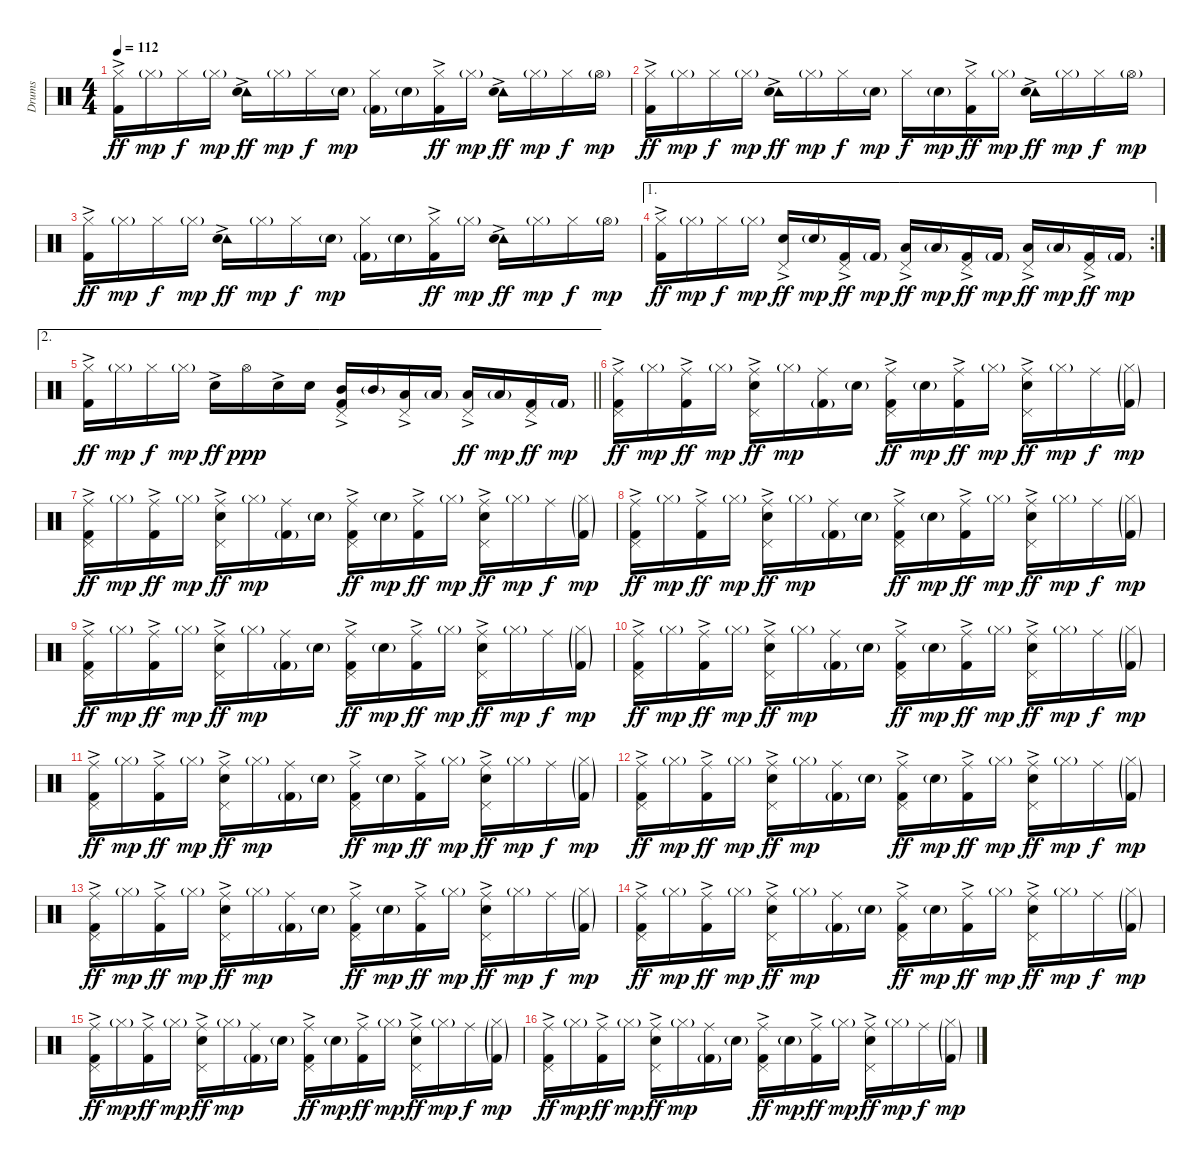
\track ("Drums" "Drums") {instrument percussion}
\staff {score}
\articulation defaults
\ts (4 4)
\tempo 112
\clef neutral
\ks c
("Hi-Hat (closed)" "Kick (hit) 2"{ac}).16{dy ff} "Hi-Hat (closed)"{g}.16{dy mp} "Hi-Hat (closed)".16{dy f} "Hi-Hat (closed)"{g}.16{dy mp} ("Tambourine (hit)" "Snare (hit) 2"{ac}).16{dy ff} "Hi-Hat (closed)"{g}.16{dy mp} "Hi-Hat (closed)".16{dy f} "Snare (hit) 2"{g}.16{dy mp} ("Hi-Hat (closed)" "Kick (hit) 2"{g}).16 "Snare (hit) 2"{g}.16 ("Hi-Hat (closed)" "Kick (hit) 2"{ac}).16{dy ff} "Hi-Hat (closed)"{g}.16{dy mp} ("Tambourine (hit)" "Snare (hit) 2"{ac}).16{dy ff} "Hi-Hat (closed)"{g}.16{dy mp} "Hi-Hat (closed)".16{dy f} "Hi-Hat (open)"{g}.16{dy mp} |
("Hi-Hat (closed)" "Kick (hit) 2"{ac}).16{dy ff} "Hi-Hat (closed)"{g}.16{dy mp} "Hi-Hat (closed)".16{dy f} "Hi-Hat (closed)"{g}.16{dy mp} ("Tambourine (hit)" "Snare (hit) 2"{ac}).16{dy ff} "Hi-Hat (closed)"{g}.16{dy mp} "Hi-Hat (closed)".16{dy f} "Snare (hit) 2"{g}.16{dy mp} "Hi-Hat (closed)".16{dy f} "Snare (hit) 2"{g}.16{dy mp} ("Hi-Hat (closed)" "Kick (hit) 2"{ac}).16{dy ff} "Hi-Hat (closed)"{g}.16{dy mp} ("Tambourine (hit)" "Snare (hit) 2"{ac}).16{dy ff} "Hi-Hat (closed)"{g}.16{dy mp} "Hi-Hat (closed)".16{dy f} "Hi-Hat (open)"{g}.16{dy mp} |
("Hi-Hat (closed)" "Kick (hit) 2"{ac}).16{dy ff} "Hi-Hat (closed)"{g}.16{dy mp} "Hi-Hat (closed)".16{dy f} "Hi-Hat (closed)"{g}.16{dy mp} ("Tambourine (hit)" "Snare (hit) 2"{ac}).16{dy ff} "Hi-Hat (closed)"{g}.16{dy mp} "Hi-Hat (closed)".16{dy f} "Snare (hit) 2"{g}.16{dy mp} ("Hi-Hat (closed)" "Kick (hit) 2"{g}).16 "Snare (hit) 2"{g}.16 ("Hi-Hat (closed)" "Kick (hit) 2"{ac}).16{dy ff} "Hi-Hat (closed)"{g}.16{dy mp} ("Tambourine (hit)" "Snare (hit) 2"{ac}).16{dy ff} "Hi-Hat (closed)"{g}.16{dy mp} "Hi-Hat (closed)".16{dy f} "Hi-Hat (open)"{g}.16{dy mp} |
\ae 1
\rc 2
("Hi-Hat (closed)" "Kick (hit) 2"{ac}).16{dy ff} "Hi-Hat (closed)"{g}.16{dy mp} "Hi-Hat (closed)".16{dy f} "Hi-Hat (closed)"{g}.16{dy mp} ("Pedal Hi-Hat (hit)" "Snare (hit) 2"{ac}).16{dy ff} "Snare (hit) 2"{g}.16{dy mp} ("Pedal Hi-Hat (hit)" "Kick (hit) 2"{ac}).16{dy ff} "Kick (hit) 2"{g}.16{dy mp} ("Pedal Hi-Hat (hit)" "Low Tom (hit)"{ac}).16{dy ff} "Low Tom (hit)"{g}.16{dy mp} ("Pedal Hi-Hat (hit)" "Kick (hit) 2"{ac}).16{dy ff} "Kick (hit) 2"{g}.16{dy mp} ("Pedal Hi-Hat (hit)" "Low Floor Tom (hit)"{ac}).16{dy ff} "Low Floor Tom (hit)"{g}.16{dy mp} ("Pedal Hi-Hat (hit)" "Kick (hit) 2"{ac}).16{dy ff} "Kick (hit) 2"{g}.16{dy mp} |
\ae 2
\barLineRight lightlight
("Hi-Hat (closed)" "Kick (hit) 2"{ac}).16{dy ff} "Hi-Hat (closed)"{g}.16{dy mp} "Hi-Hat (closed)".16{dy f} "Hi-Hat (closed)"{g}.16{dy mp} "Snare (hit) 2"{ac}.16{dy ff} "Hi-Hat (open)".16{dy ppp} "Snare (hit) 2"{ac}.16 "Snare (hit) 2".16 ("Pedal Hi-Hat (hit)" "Mid Tom (hit)"{ac} "Kick (hit) 2"{ac}).16 "Mid Tom (hit)"{g}.16 ("Pedal Hi-Hat (hit)" "Low Tom (hit)"{ac}).16 "Low Tom (hit)"{g}.16 ("Pedal Hi-Hat (hit)" "Low Floor Tom (hit)"{ac}).16{dy ff} "Low Floor Tom (hit)"{g}.16{dy mp} ("Pedal Hi-Hat (hit)" "Kick (hit) 2"{ac}).16{dy ff} "Kick (hit) 2"{g}.16{dy mp} |
("Pedal Hi-Hat (hit)" "Ride (middle)" "Kick (hit) 2"{ac}).16{dy ff} "Hi-Hat (closed)"{g}.16{dy mp} ("Ride (middle)" "Kick (hit) 2"{ac}).16{dy ff} "Hi-Hat (closed)"{g}.16{dy mp} ("Pedal Hi-Hat (hit)" "Ride (middle)" "Snare (hit) 2"{ac}).16{dy ff} "Hi-Hat (closed)"{g}.16{dy mp} ("Ride (middle)" "Kick (hit) 2"{g}).16 "Snare (hit) 2"{g}.16 ("Pedal Hi-Hat (hit)" "Ride (middle)" "Kick (hit) 2"{ac}).16{dy ff} "Snare (hit) 2"{g}.16{dy mp} ("Ride (middle)" "Kick (hit) 2"{ac}).16{dy ff} "Hi-Hat (closed)"{g}.16{dy mp} ("Pedal Hi-Hat (hit)" "Ride (middle)" "Snare (hit) 2"{ac}).16{dy ff} "Hi-Hat (closed)"{g}.16{dy mp} "Ride (middle)".16{dy f} ("Hi-Hat (closed)"{g} "Kick (hit) 2"{g}).16{dy mp} |
("Pedal Hi-Hat (hit)" "Ride (middle)" "Kick (hit) 2"{ac}).16{dy ff} "Hi-Hat (closed)"{g}.16{dy mp} ("Ride (middle)" "Kick (hit) 2"{ac}).16{dy ff} "Hi-Hat (closed)"{g}.16{dy mp} ("Pedal Hi-Hat (hit)" "Ride (middle)" "Snare (hit) 2"{ac}).16{dy ff} "Hi-Hat (closed)"{g}.16{dy mp} ("Ride (middle)" "Kick (hit) 2"{g}).16 "Snare (hit) 2"{g}.16 ("Pedal Hi-Hat (hit)" "Ride (middle)" "Kick (hit) 2"{ac}).16{dy ff} "Snare (hit) 2"{g}.16{dy mp} ("Ride (middle)" "Kick (hit) 2"{ac}).16{dy ff} "Hi-Hat (closed)"{g}.16{dy mp} ("Pedal Hi-Hat (hit)" "Ride (middle)" "Snare (hit) 2"{ac}).16{dy ff} "Hi-Hat (closed)"{g}.16{dy mp} "Ride (middle)".16{dy f} ("Hi-Hat (closed)"{g} "Kick (hit) 2"{g}).16{dy mp} |
("Pedal Hi-Hat (hit)" "Ride (middle)" "Kick (hit) 2"{ac}).16{dy ff} "Hi-Hat (closed)"{g}.16{dy mp} ("Ride (middle)" "Kick (hit) 2"{ac}).16{dy ff} "Hi-Hat (closed)"{g}.16{dy mp} ("Pedal Hi-Hat (hit)" "Ride (middle)" "Snare (hit) 2"{ac}).16{dy ff} "Hi-Hat (closed)"{g}.16{dy mp} ("Ride (middle)" "Kick (hit) 2"{g}).16 "Snare (hit) 2"{g}.16 ("Pedal Hi-Hat (hit)" "Ride (middle)" "Kick (hit) 2"{ac}).16{dy ff} "Snare (hit) 2"{g}.16{dy mp} ("Ride (middle)" "Kick (hit) 2"{ac}).16{dy ff} "Hi-Hat (closed)"{g}.16{dy mp} ("Pedal Hi-Hat (hit)" "Ride (middle)" "Snare (hit) 2"{ac}).16{dy ff} "Hi-Hat (closed)"{g}.16{dy mp} "Ride (middle)".16{dy f} ("Hi-Hat (closed)"{g} "Kick (hit) 2"{g}).16{dy mp} |
("Pedal Hi-Hat (hit)" "Ride (middle)" "Kick (hit) 2"{ac}).16{dy ff} "Hi-Hat (closed)"{g}.16{dy mp} ("Ride (middle)" "Kick (hit) 2"{ac}).16{dy ff} "Hi-Hat (closed)"{g}.16{dy mp} ("Pedal Hi-Hat (hit)" "Ride (middle)" "Snare (hit) 2"{ac}).16{dy ff} "Hi-Hat (closed)"{g}.16{dy mp} ("Ride (middle)" "Kick (hit) 2"{g}).16 "Snare (hit) 2"{g}.16 ("Pedal Hi-Hat (hit)" "Ride (middle)" "Kick (hit) 2"{ac}).16{dy ff} "Snare (hit) 2"{g}.16{dy mp} ("Ride (middle)" "Kick (hit) 2"{ac}).16{dy ff} "Hi-Hat (closed)"{g}.16{dy mp} ("Pedal Hi-Hat (hit)" "Ride (middle)" "Snare (hit) 2"{ac}).16{dy ff} "Hi-Hat (closed)"{g}.16{dy mp} "Ride (middle)".16{dy f} ("Hi-Hat (closed)"{g} "Kick (hit) 2"{g}).16{dy mp} |
("Pedal Hi-Hat (hit)" "Ride (middle)" "Kick (hit) 2"{ac}).16{dy ff} "Hi-Hat (closed)"{g}.16{dy mp} ("Ride (middle)" "Kick (hit) 2"{ac}).16{dy ff} "Hi-Hat (closed)"{g}.16{dy mp} ("Pedal Hi-Hat (hit)" "Ride (middle)" "Snare (hit) 2"{ac}).16{dy ff} "Hi-Hat (closed)"{g}.16{dy mp} ("Ride (middle)" "Kick (hit) 2"{g}).16 "Snare (hit) 2"{g}.16 ("Pedal Hi-Hat (hit)" "Ride (middle)" "Kick (hit) 2"{ac}).16{dy ff} "Snare (hit) 2"{g}.16{dy mp} ("Ride (middle)" "Kick (hit) 2"{ac}).16{dy ff} "Hi-Hat (closed)"{g}.16{dy mp} ("Pedal Hi-Hat (hit)" "Ride (middle)" "Snare (hit) 2"{ac}).16{dy ff} "Hi-Hat (closed)"{g}.16{dy mp} "Ride (middle)".16{dy f} ("Hi-Hat (closed)"{g} "Kick (hit) 2"{g}).16{dy mp} |
("Pedal Hi-Hat (hit)" "Ride (middle)" "Kick (hit) 2"{ac}).16{dy ff} "Hi-Hat (closed)"{g}.16{dy mp} ("Ride (middle)" "Kick (hit) 2"{ac}).16{dy ff} "Hi-Hat (closed)"{g}.16{dy mp} ("Pedal Hi-Hat (hit)" "Ride (middle)" "Snare (hit) 2"{ac}).16{dy ff} "Hi-Hat (closed)"{g}.16{dy mp} ("Ride (middle)" "Kick (hit) 2"{g}).16 "Snare (hit) 2"{g}.16 ("Pedal Hi-Hat (hit)" "Ride (middle)" "Kick (hit) 2"{ac}).16{dy ff} "Snare (hit) 2"{g}.16{dy mp} ("Ride (middle)" "Kick (hit) 2"{ac}).16{dy ff} "Hi-Hat (closed)"{g}.16{dy mp} ("Pedal Hi-Hat (hit)" "Ride (middle)" "Snare (hit) 2"{ac}).16{dy ff} "Hi-Hat (closed)"{g}.16{dy mp} "Ride (middle)".16{dy f} ("Hi-Hat (closed)"{g} "Kick (hit) 2"{g}).16{dy mp} |
("Pedal Hi-Hat (hit)" "Ride (middle)" "Kick (hit) 2"{ac}).16{dy ff} "Hi-Hat (closed)"{g}.16{dy mp} ("Ride (middle)" "Kick (hit) 2"{ac}).16{dy ff} "Hi-Hat (closed)"{g}.16{dy mp} ("Pedal Hi-Hat (hit)" "Ride (middle)" "Snare (hit) 2"{ac}).16{dy ff} "Hi-Hat (closed)"{g}.16{dy mp} ("Ride (middle)" "Kick (hit) 2"{g}).16 "Snare (hit) 2"{g}.16 ("Pedal Hi-Hat (hit)" "Ride (middle)" "Kick (hit) 2"{ac}).16{dy ff} "Snare (hit) 2"{g}.16{dy mp} ("Ride (middle)" "Kick (hit) 2"{ac}).16{dy ff} "Hi-Hat (closed)"{g}.16{dy mp} ("Pedal Hi-Hat (hit)" "Ride (middle)" "Snare (hit) 2"{ac}).16{dy ff} "Hi-Hat (closed)"{g}.16{dy mp} "Ride (middle)".16{dy f} ("Hi-Hat (closed)"{g} "Kick (hit) 2"{g}).16{dy mp} |
("Pedal Hi-Hat (hit)" "Ride (middle)" "Kick (hit) 2"{ac}).16{dy ff} "Hi-Hat (closed)"{g}.16{dy mp} ("Ride (middle)" "Kick (hit) 2"{ac}).16{dy ff} "Hi-Hat (closed)"{g}.16{dy mp} ("Pedal Hi-Hat (hit)" "Ride (middle)" "Snare (hit) 2"{ac}).16{dy ff} "Hi-Hat (closed)"{g}.16{dy mp} ("Ride (middle)" "Kick (hit) 2"{g}).16 "Snare (hit) 2"{g}.16 ("Pedal Hi-Hat (hit)" "Ride (middle)" "Kick (hit) 2"{ac}).16{dy ff} "Snare (hit) 2"{g}.16{dy mp} ("Ride (middle)" "Kick (hit) 2"{ac}).16{dy ff} "Hi-Hat (closed)"{g}.16{dy mp} ("Pedal Hi-Hat (hit)" "Ride (middle)" "Snare (hit) 2"{ac}).16{dy ff} "Hi-Hat (closed)"{g}.16{dy mp} "Ride (middle)".16{dy f} ("Hi-Hat (closed)"{g} "Kick (hit) 2"{g}).16{dy mp} |
("Pedal Hi-Hat (hit)" "Ride (middle)" "Kick (hit) 2"{ac}).16{dy ff} "Hi-Hat (closed)"{g}.16{dy mp} ("Ride (middle)" "Kick (hit) 2"{ac}).16{dy ff} "Hi-Hat (closed)"{g}.16{dy mp} ("Pedal Hi-Hat (hit)" "Ride (middle)" "Snare (hit) 2"{ac}).16{dy ff} "Hi-Hat (closed)"{g}.16{dy mp} ("Ride (middle)" "Kick (hit) 2"{g}).16 "Snare (hit) 2"{g}.16 ("Pedal Hi-Hat (hit)" "Ride (middle)" "Kick (hit) 2"{ac}).16{dy ff} "Snare (hit) 2"{g}.16{dy mp} ("Ride (middle)" "Kick (hit) 2"{ac}).16{dy ff} "Hi-Hat (closed)"{g}.16{dy mp} ("Pedal Hi-Hat (hit)" "Ride (middle)" "Snare (hit) 2"{ac}).16{dy ff} "Hi-Hat (closed)"{g}.16{dy mp} "Ride (middle)".16{dy f} ("Hi-Hat (closed)"{g} "Kick (hit) 2"{g}).16{dy mp} |
("Pedal Hi-Hat (hit)" "Ride (middle)" "Kick (hit) 2"{ac}).16{dy ff} "Hi-Hat (closed)"{g}.16{dy mp} ("Ride (middle)" "Kick (hit) 2"{ac}).16{dy ff} "Hi-Hat (closed)"{g}.16{dy mp} ("Pedal Hi-Hat (hit)" "Ride (middle)" "Snare (hit) 2"{ac}).16{dy ff} "Hi-Hat (closed)"{g}.16{dy mp} ("Ride (middle)" "Kick (hit) 2"{g}).16 "Snare (hit) 2"{g}.16 ("Pedal Hi-Hat (hit)" "Ride (middle)" "Kick (hit) 2"{ac}).16{dy ff} "Snare (hit) 2"{g}.16{dy mp} ("Ride (middle)" "Kick (hit) 2"{ac}).16{dy ff} "Hi-Hat (closed)"{g}.16{dy mp} ("Pedal Hi-Hat (hit)" "Ride (middle)" "Snare (hit) 2"{ac}).16{dy ff} "Hi-Hat (closed)"{g}.16{dy mp} "Ride (middle)".16{dy f} ("Hi-Hat (closed)"{g} "Kick (hit) 2"{g}).16{dy mp} |
("Pedal Hi-Hat (hit)" "Ride (middle)" "Kick (hit) 2"{ac}).16{dy ff} "Hi-Hat (closed)"{g}.16{dy mp} ("Ride (middle)" "Kick (hit) 2"{ac}).16{dy ff} "Hi-Hat (closed)"{g}.16{dy mp} ("Pedal Hi-Hat (hit)" "Ride (middle)" "Snare (hit) 2"{ac}).16{dy ff} "Hi-Hat (closed)"{g}.16{dy mp} ("Ride (middle)" "Kick (hit) 2"{g}).16 "Snare (hit) 2"{g}.16 ("Pedal Hi-Hat (hit)" "Ride (middle)" "Kick (hit) 2"{ac}).16{dy ff} "Snare (hit) 2"{g}.16{dy mp} ("Ride (middle)" "Kick (hit) 2"{ac}).16{dy ff} "Hi-Hat (closed)"{g}.16{dy mp} ("Pedal Hi-Hat (hit)" "Ride (middle)" "Snare (hit) 2"{ac}).16{dy ff} "Hi-Hat (closed)"{g}.16{dy mp} "Ride (middle)".16{dy f} ("Hi-Hat (closed)"{g} "Kick (hit) 2"{g}).16{dy mp}
